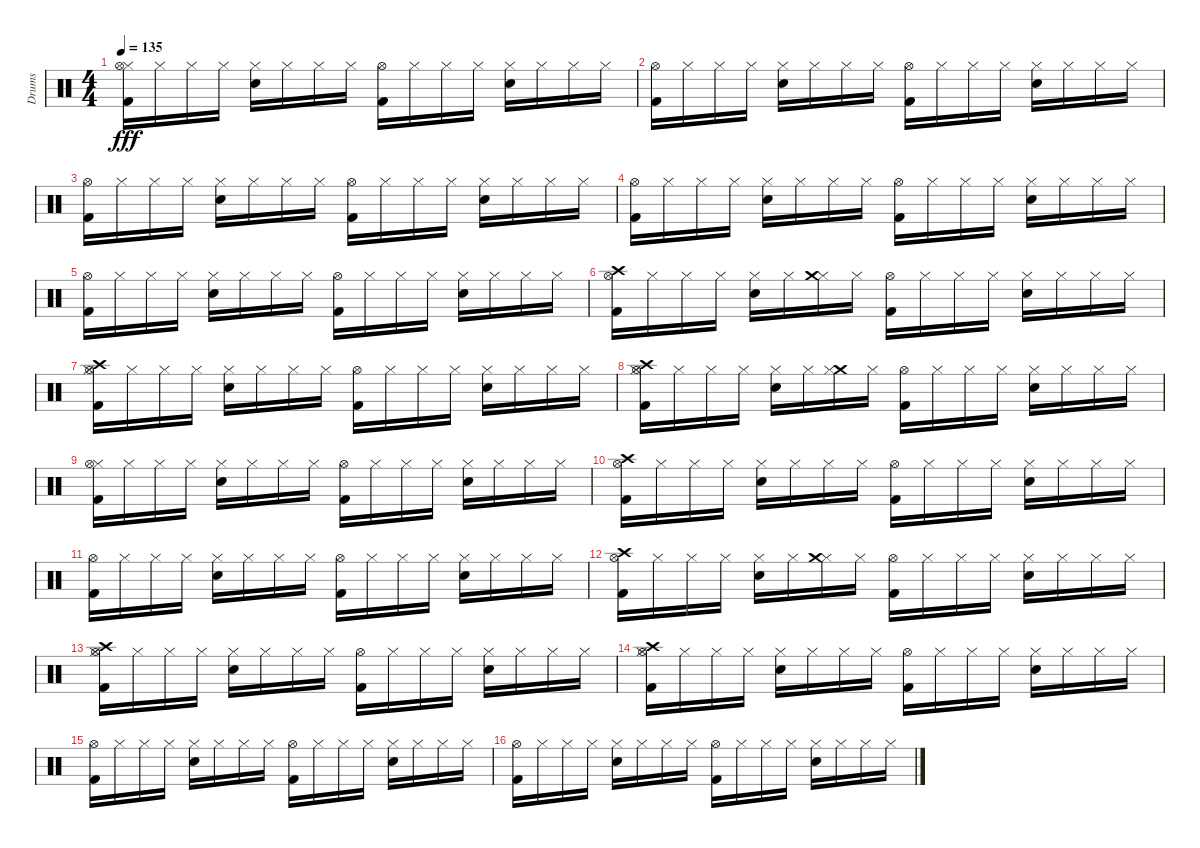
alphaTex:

\track ("Drums" "Drums") {instrument percussion}
\staff {score}
\articulation defaults
\ts (4 4)
\tempo 135
\clef neutral
\ks c
("Hi-Hat (closed)" "Hi-Hat (open)" "Kick (hit) 2").16{dy fff} "Hi-Hat (closed)".16 "Hi-Hat (closed)".16 "Hi-Hat (closed)".16 ("Snare (hit) 2" "Hi-Hat (closed)").16 "Hi-Hat (closed)".16 "Hi-Hat (closed)".16 "Hi-Hat (closed)".16 ("Kick (hit) 2" "Hi-Hat (open)").16 "Hi-Hat (closed)".16 "Hi-Hat (closed)".16 "Hi-Hat (closed)".16 ("Snare (hit) 2" "Hi-Hat (closed)").16 "Hi-Hat (closed)".16 "Hi-Hat (closed)".16 "Hi-Hat (closed)".16 |
("Hi-Hat (open)" "Kick (hit) 2").16 "Hi-Hat (closed)".16 "Hi-Hat (closed)".16 "Hi-Hat (closed)".16 ("Snare (hit) 2" "Hi-Hat (closed)").16 "Hi-Hat (closed)".16 "Hi-Hat (closed)".16 "Hi-Hat (closed)".16 ("Kick (hit) 2" "Hi-Hat (open)").16 "Hi-Hat (closed)".16 "Hi-Hat (closed)".16 "Hi-Hat (closed)".16 ("Snare (hit) 2" "Hi-Hat (closed)").16 "Hi-Hat (closed)".16 "Hi-Hat (closed)".16 "Hi-Hat (closed)".16 |
("Hi-Hat (open)" "Kick (hit) 2").16 "Hi-Hat (closed)".16 "Hi-Hat (closed)".16 "Hi-Hat (closed)".16 ("Snare (hit) 2" "Hi-Hat (closed)").16 "Hi-Hat (closed)".16 "Hi-Hat (closed)".16 "Hi-Hat (closed)".16 ("Kick (hit) 2" "Hi-Hat (open)").16 "Hi-Hat (closed)".16 "Hi-Hat (closed)".16 "Hi-Hat (closed)".16 ("Snare (hit) 2" "Hi-Hat (closed)").16 "Hi-Hat (closed)".16 "Hi-Hat (closed)".16 "Hi-Hat (closed)".16 |
("Hi-Hat (open)" "Kick (hit) 2").16 "Hi-Hat (closed)".16 "Hi-Hat (closed)".16 "Hi-Hat (closed)".16 ("Snare (hit) 2" "Hi-Hat (closed)").16 "Hi-Hat (closed)".16 "Hi-Hat (closed)".16 "Hi-Hat (closed)".16 ("Kick (hit) 2" "Hi-Hat (open)").16 "Hi-Hat (closed)".16 "Hi-Hat (closed)".16 "Hi-Hat (closed)".16 ("Snare (hit) 2" "Hi-Hat (closed)").16 "Hi-Hat (closed)".16 "Hi-Hat (closed)".16 "Hi-Hat (closed)".16 |
("Hi-Hat (open)" "Kick (hit) 2").16 "Hi-Hat (closed)".16 "Hi-Hat (closed)".16 "Hi-Hat (closed)".16 ("Snare (hit) 2" "Hi-Hat (closed)").16 "Hi-Hat (closed)".16 "Hi-Hat (closed)".16 "Hi-Hat (closed)".16 ("Kick (hit) 2" "Hi-Hat (open)").16 "Hi-Hat (closed)".16 "Hi-Hat (closed)".16 "Hi-Hat (closed)".16 ("Snare (hit) 2" "Hi-Hat (closed)").16 "Hi-Hat (closed)".16 "Hi-Hat (closed)".16 "Hi-Hat (closed)".16 |
("Crash high (hit)" "Hi-Hat (open)" "Kick (hit) 2").16 "Hi-Hat (closed)".16 "Hi-Hat (closed)".16 "Hi-Hat (closed)".16 ("Snare (hit) 2" "Hi-Hat (closed)").16 "Hi-Hat (closed)".16 ("Hi-Hat (closed)" "Crash medium (hit)").16 "Hi-Hat (closed)".16 ("Kick (hit) 2" "Hi-Hat (open)").16 "Hi-Hat (closed)".16 "Hi-Hat (closed)".16 "Hi-Hat (closed)".16 ("Snare (hit) 2" "Hi-Hat (closed)").16 "Hi-Hat (closed)".16 "Hi-Hat (closed)".16 "Hi-Hat (closed)".16 |
("Hi-Hat (closed)" "Crash high (hit)" "Hi-Hat (open)" "Kick (hit) 2").16 "Hi-Hat (closed)".16 "Hi-Hat (closed)".16 "Hi-Hat (closed)".16 ("Snare (hit) 2" "Hi-Hat (closed)").16 "Hi-Hat (closed)".16 "Hi-Hat (closed)".16 "Hi-Hat (closed)".16 ("Kick (hit) 2" "Hi-Hat (open)").16 "Hi-Hat (closed)".16 "Hi-Hat (closed)".16 "Hi-Hat (closed)".16 ("Snare (hit) 2" "Hi-Hat (closed)").16 "Hi-Hat (closed)".16 "Hi-Hat (closed)".16 "Hi-Hat (closed)".16 |
("Hi-Hat (closed)" "Crash high (hit)" "Hi-Hat (open)" "Kick (hit) 2").16 "Hi-Hat (closed)".16 "Hi-Hat (closed)".16 "Hi-Hat (closed)".16 ("Snare (hit) 2" "Hi-Hat (closed)").16 "Hi-Hat (closed)".16 ("Crash medium (hit)" "Hi-Hat (closed)").16 "Hi-Hat (closed)".16 ("Kick (hit) 2" "Hi-Hat (open)").16 "Hi-Hat (closed)".16 "Hi-Hat (closed)".16 "Hi-Hat (closed)".16 ("Snare (hit) 2" "Hi-Hat (closed)").16 "Hi-Hat (closed)".16 "Hi-Hat (closed)".16 "Hi-Hat (closed)".16 |
("Hi-Hat (closed)" "Hi-Hat (open)" "Kick (hit) 2").16 "Hi-Hat (closed)".16 "Hi-Hat (closed)".16 "Hi-Hat (closed)".16 ("Snare (hit) 2" "Hi-Hat (closed)").16 "Hi-Hat (closed)".16 "Hi-Hat (closed)".16 "Hi-Hat (closed)".16 ("Kick (hit) 2" "Hi-Hat (open)").16 "Hi-Hat (closed)".16 "Hi-Hat (closed)".16 "Hi-Hat (closed)".16 ("Snare (hit) 2" "Hi-Hat (closed)").16 "Hi-Hat (closed)".16 "Hi-Hat (closed)".16 "Hi-Hat (closed)".16 |
("Crash high (hit)" "Hi-Hat (open)" "Kick (hit) 2").16 "Hi-Hat (closed)".16 "Hi-Hat (closed)".16 "Hi-Hat (closed)".16 ("Snare (hit) 2" "Hi-Hat (closed)").16 "Hi-Hat (closed)".16 "Hi-Hat (closed)".16 "Hi-Hat (closed)".16 ("Kick (hit) 2" "Hi-Hat (open)").16 "Hi-Hat (closed)".16 "Hi-Hat (closed)".16 "Hi-Hat (closed)".16 ("Snare (hit) 2" "Hi-Hat (closed)").16 "Hi-Hat (closed)".16 "Hi-Hat (closed)".16 "Hi-Hat (closed)".16 |
("Hi-Hat (open)" "Kick (hit) 2").16 "Hi-Hat (closed)".16 "Hi-Hat (closed)".16 "Hi-Hat (closed)".16 ("Snare (hit) 2" "Hi-Hat (closed)").16 "Hi-Hat (closed)".16 "Hi-Hat (closed)".16 "Hi-Hat (closed)".16 ("Kick (hit) 2" "Hi-Hat (open)").16 "Hi-Hat (closed)".16 "Hi-Hat (closed)".16 "Hi-Hat (closed)".16 ("Snare (hit) 2" "Hi-Hat (closed)").16 "Hi-Hat (closed)".16 "Hi-Hat (closed)".16 "Hi-Hat (closed)".16 |
("Crash high (hit)" "Hi-Hat (open)" "Kick (hit) 2").16 "Hi-Hat (closed)".16 "Hi-Hat (closed)".16 "Hi-Hat (closed)".16 ("Snare (hit) 2" "Hi-Hat (closed)").16 "Hi-Hat (closed)".16 ("Hi-Hat (closed)" "Crash medium (hit)").16 "Hi-Hat (closed)".16 ("Kick (hit) 2" "Hi-Hat (open)").16 "Hi-Hat (closed)".16 "Hi-Hat (closed)".16 "Hi-Hat (closed)".16 ("Snare (hit) 2" "Hi-Hat (closed)").16 "Hi-Hat (closed)".16 "Hi-Hat (closed)".16 "Hi-Hat (closed)".16 |
("Hi-Hat (closed)" "Crash high (hit)" "Hi-Hat (open)" "Kick (hit) 2").16 "Hi-Hat (closed)".16 "Hi-Hat (closed)".16 "Hi-Hat (closed)".16 ("Snare (hit) 2" "Hi-Hat (closed)").16 "Hi-Hat (closed)".16 "Hi-Hat (closed)".16 "Hi-Hat (closed)".16 ("Kick (hit) 2" "Hi-Hat (open)").16 "Hi-Hat (closed)".16 "Hi-Hat (closed)".16 "Hi-Hat (closed)".16 ("Snare (hit) 2" "Hi-Hat (closed)").16 "Hi-Hat (closed)".16 "Hi-Hat (closed)".16 "Hi-Hat (closed)".16 |
("Hi-Hat (closed)" "Crash high (hit)" "Hi-Hat (open)" "Kick (hit) 2").16 "Hi-Hat (closed)".16 "Hi-Hat (closed)".16 "Hi-Hat (closed)".16 ("Snare (hit) 2" "Hi-Hat (closed)").16 "Hi-Hat (closed)".16 "Hi-Hat (closed)".16 "Hi-Hat (closed)".16 ("Kick (hit) 2" "Hi-Hat (open)").16 "Hi-Hat (closed)".16 "Hi-Hat (closed)".16 "Hi-Hat (closed)".16 ("Snare (hit) 2" "Hi-Hat (closed)").16 "Hi-Hat (closed)".16 "Hi-Hat (closed)".16 "Hi-Hat (closed)".16 |
("Hi-Hat (open)" "Kick (hit) 2").16 "Hi-Hat (closed)".16 "Hi-Hat (closed)".16 "Hi-Hat (closed)".16 ("Snare (hit) 2" "Hi-Hat (closed)").16 "Hi-Hat (closed)".16 "Hi-Hat (closed)".16 "Hi-Hat (closed)".16 ("Kick (hit) 2" "Hi-Hat (open)").16 "Hi-Hat (closed)".16 "Hi-Hat (closed)".16 "Hi-Hat (closed)".16 ("Snare (hit) 2" "Hi-Hat (closed)").16 "Hi-Hat (closed)".16 "Hi-Hat (closed)".16 "Hi-Hat (closed)".16 |
("Hi-Hat (open)" "Kick (hit) 2").16 "Hi-Hat (closed)".16 "Hi-Hat (closed)".16 "Hi-Hat (closed)".16 ("Snare (hit) 2" "Hi-Hat (closed)").16 "Hi-Hat (closed)".16 "Hi-Hat (closed)".16 "Hi-Hat (closed)".16 ("Kick (hit) 2" "Hi-Hat (open)").16 "Hi-Hat (closed)".16 "Hi-Hat (closed)".16 "Hi-Hat (closed)".16 ("Snare (hit) 2" "Hi-Hat (closed)").16 "Hi-Hat (closed)".16 "Hi-Hat (closed)".16 "Hi-Hat (closed)".16
